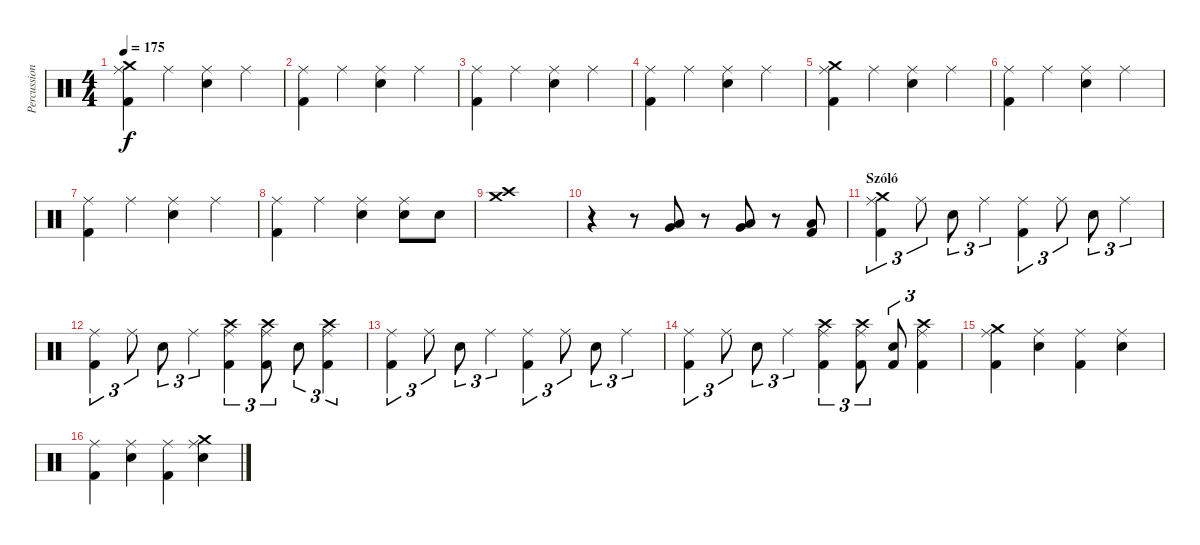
\track ("Percussion" "Percussion") {instrument percussion}
\staff {score}
\articulation defaults
\ts (4 4)
\tempo 175
\clef neutral
\ks c
("Ride (middle)" "Crash medium (hit)" "Kick (hit) 2").4{dy f} "Ride (middle)".4 ("Ride (middle)" "Electric Snare (hit)").4 "Ride (middle)".4 |
("Ride (middle)" "Kick (hit) 2").4 "Ride (middle)".4 ("Ride (middle)" "Electric Snare (hit)").4 "Ride (middle)".4 |
("Ride (middle)" "Kick (hit) 2").4 "Ride (middle)".4 ("Ride (middle)" "Electric Snare (hit)").4 "Ride (middle)".4 |
("Ride (middle)" "Kick (hit) 2").4 "Ride (middle)".4 ("Ride (middle)" "Electric Snare (hit)").4 "Ride (middle)".4 |
("Ride (middle)" "Crash medium (hit)" "Kick (hit) 2").4 "Ride (middle)".4 ("Ride (middle)" "Electric Snare (hit)").4 "Ride (middle)".4 |
("Ride (middle)" "Kick (hit) 2").4 "Ride (middle)".4 ("Ride (middle)" "Electric Snare (hit)").4 "Ride (middle)".4 |
("Ride (middle)" "Kick (hit) 2").4 "Ride (middle)".4 ("Ride (middle)" "Electric Snare (hit)").4 "Ride (middle)".4 |
("Ride (middle)" "Kick (hit) 2").4 "Ride (middle)".4 ("Ride (middle)" "Electric Snare (hit)").4 ("Ride (middle)" "Electric Snare (hit)").8 "Electric Snare (hit)".8 |
("Crash high (hit)" "Crash medium (hit)").1 |
r.4 r.8 ("Low Tom (hit)" "Very Low Tom (hit)").8 r.8 ("Very Low Tom (hit)" "Low Floor Tom (hit)").8 r.8 ("Low Floor Tom (hit)" "Kick (hit) 2").8 |
\section ("" "Szóló")
("Ride (middle)" "Kick (hit) 2" "Crash medium (hit)").4{tu (3 2)} "Ride (middle)".8{tu (3 2)} "Electric Snare (hit)".8{tu (3 2)} "Ride (middle)".4{tu (3 2)} ("Ride (middle)" "Kick (hit) 2").4{tu (3 2)} "Ride (middle)".8{tu (3 2)} "Electric Snare (hit)".8{tu (3 2)} "Ride (middle)".4{tu (3 2)} |
("Ride (middle)" "Kick (hit) 2").4{tu (3 2)} "Ride (middle)".8{tu (3 2)} "Electric Snare (hit)".8{tu (3 2)} "Ride (middle)".4{tu (3 2)} ("Ride (middle)" "Kick (hit) 2" "Crash high (hit)").4{tu (3 2)} ("Ride (middle)" "Kick (hit) 2" "Crash high (hit)").8{tu (3 2)} "Electric Snare (hit)".8{tu (3 2)} ("Ride (middle)" "Kick (hit) 2" "Crash high (hit)").4{tu (3 2)} |
("Ride (middle)" "Kick (hit) 2").4{tu (3 2)} "Ride (middle)".8{tu (3 2)} "Electric Snare (hit)".8{tu (3 2)} "Ride (middle)".4{tu (3 2)} ("Ride (middle)" "Kick (hit) 2").4{tu (3 2)} "Ride (middle)".8{tu (3 2)} "Electric Snare (hit)".8{tu (3 2)} "Ride (middle)".4{tu (3 2)} |
("Ride (middle)" "Kick (hit) 2").4{tu (3 2)} "Ride (middle)".8{tu (3 2)} "Electric Snare (hit)".8{tu (3 2)} "Ride (middle)".4{tu (3 2)} ("Ride (middle)" "Kick (hit) 2" "Crash high (hit)").4{tu (3 2)} ("Ride (middle)" "Kick (hit) 2" "Crash high (hit)").8{tu (3 2)} ("Kick (hit) 2" "Electric Snare (hit)").8{tu (3 2)} ("Ride (middle)" "Kick (hit) 2" "Crash high (hit)").4{tu (3 2)} |
("Ride (middle)" "Kick (hit) 2" "Crash medium (hit)").4 ("Ride (middle)" "Electric Snare (hit)").4 ("Ride (middle)" "Kick (hit) 2").4 ("Ride (middle)" "Electric Snare (hit)").4 |
("Ride (middle)" "Kick (hit) 2").4 ("Ride (middle)" "Electric Snare (hit)").4 ("Ride (middle)" "Kick (hit) 2").4 ("Ride (middle)" "Crash medium (hit)" "Electric Snare (hit)").4
